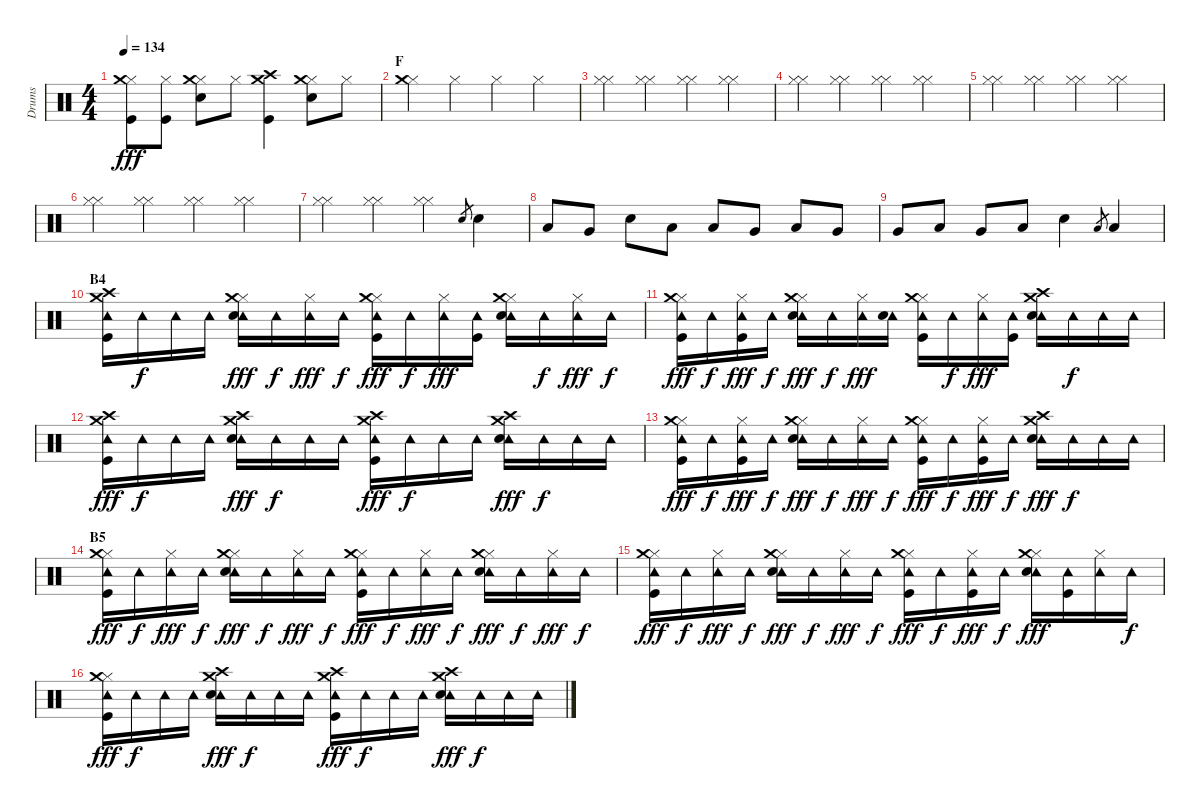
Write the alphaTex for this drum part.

\track ("Drums" "Drums") {instrument percussion}
\staff {score}
\articulation defaults
\ts (4 4)
\tempo 134
\clef neutral
\ks c
("Hi-Hat (closed)" "Crash medium (hit)" "Kick (hit)").8{dy fff} ("Hi-Hat (closed)" "Kick (hit)").8 ("Hi-Hat (closed)" "Crash medium (hit)" "Snare (hit) 2").8 "Hi-Hat (closed)".8 ("Crash high (hit)" "Crash medium (hit)" "Kick (hit)").4 ("Hi-Hat (closed)" "Crash medium (hit)" "Snare (hit) 2").8 "Hi-Hat (closed)".8 |
\section ("" "F")
("Hi-Hat (closed)" "Crash medium (hit)").4 "Hi-Hat (closed)".4 "Hi-Hat (closed)".4 "Hi-Hat (closed)".4 |
("Hi-Hat (closed)" "Hi-Hat (closed)").4 ("Hi-Hat (closed)" "Hi-Hat (closed)").4 ("Hi-Hat (closed)" "Hi-Hat (closed)").4 ("Hi-Hat (closed)" "Hi-Hat (closed)").4 |
("Hi-Hat (closed)" "Hi-Hat (closed)").4 ("Hi-Hat (closed)" "Hi-Hat (closed)").4 ("Hi-Hat (closed)" "Hi-Hat (closed)").4 ("Hi-Hat (closed)" "Hi-Hat (closed)").4 |
("Hi-Hat (closed)" "Hi-Hat (closed)").4 ("Hi-Hat (closed)" "Hi-Hat (closed)").4 ("Hi-Hat (closed)" "Hi-Hat (closed)").4 ("Hi-Hat (closed)" "Hi-Hat (closed)").4 |
("Hi-Hat (closed)" "Hi-Hat (closed)").4 ("Hi-Hat (closed)" "Hi-Hat (closed)").4 ("Hi-Hat (closed)" "Hi-Hat (closed)").4 ("Hi-Hat (closed)" "Hi-Hat (closed)").4 |
("Hi-Hat (closed)" "Hi-Hat (closed)").4 ("Hi-Hat (closed)" "Hi-Hat (closed)").4 ("Hi-Hat (closed)" "Hi-Hat (closed)").4 "Snare (hit) 2".8{gr} "Snare (hit) 2".4 |
"Low Tom (hit)".8 "Very Low Tom (hit)".8 "Snare (hit) 2".8 "Low Tom (hit)".8 "Low Tom (hit)".8 "Very Low Tom (hit)".8 "Low Floor Tom (hit)".8 "Very Low Tom (hit)".8 |
"Very Low Tom (hit)".8 "Low Floor Tom (hit)".8 "Very Low Tom (hit)".8 "Low Tom (hit)".8 "Snare (hit) 2".4 "Low Tom (hit)".8{gr} "Low Floor Tom (hit)".4 |
\section ("" "B4")
("Crash high (hit)" "Tambourine (hit)" "Crash medium (hit)" "Kick (hit)").16 "Tambourine (hit)".16{dy f} "Tambourine (hit)".16 "Tambourine (hit)".16 ("Hi-Hat (closed)" "Tambourine (hit)" "Crash medium (hit)" "Snare (hit) 2").16{dy fff} "Tambourine (hit)".16{dy f} ("Hi-Hat (closed)" "Tambourine (hit)").16{dy fff} "Tambourine (hit)".16{dy f} ("Hi-Hat (closed)" "Tambourine (hit)" "Crash medium (hit)" "Kick (hit)").16{dy fff} "Tambourine (hit)".16{dy f} ("Hi-Hat (closed)" "Tambourine (hit)").16{dy fff} ("Tambourine (hit)" "Kick (hit)").16 ("Hi-Hat (closed)" "Tambourine (hit)" "Crash medium (hit)" "Snare (hit) 2").16 "Tambourine (hit)".16{dy f} ("Hi-Hat (closed)" "Tambourine (hit)").16{dy fff} "Tambourine (hit)".16{dy f} |
("Hi-Hat (closed)" "Tambourine (hit)" "Crash medium (hit)" "Kick (hit)").16{dy fff} "Tambourine (hit)".16{dy f} ("Hi-Hat (closed)" "Tambourine (hit)" "Kick (hit)").16{dy fff} "Tambourine (hit)".16{dy f} ("Hi-Hat (closed)" "Tambourine (hit)" "Crash medium (hit)" "Snare (hit) 2").16{dy fff} "Tambourine (hit)".16{dy f} ("Hi-Hat (closed)" "Tambourine (hit)").16{dy fff} ("Tambourine (hit)" "Snare (hit) 2").16 ("Hi-Hat (closed)" "Tambourine (hit)" "Crash medium (hit)" "Kick (hit)").16 "Tambourine (hit)".16{dy f} ("Hi-Hat (closed)" "Tambourine (hit)").16{dy fff} ("Tambourine (hit)" "Kick (hit)").16 ("Crash high (hit)" "Tambourine (hit)" "Crash medium (hit)" "Snare (hit) 2").16 "Tambourine (hit)".16{dy f} "Tambourine (hit)".16 "Tambourine (hit)".16 |
("Crash high (hit)" "Tambourine (hit)" "Crash medium (hit)" "Kick (hit)").16{dy fff} "Tambourine (hit)".16{dy f} "Tambourine (hit)".16 "Tambourine (hit)".16 ("Crash high (hit)" "Tambourine (hit)" "Crash medium (hit)" "Snare (hit) 2").16{dy fff} "Tambourine (hit)".16{dy f} "Tambourine (hit)".16 "Tambourine (hit)".16 ("Crash high (hit)" "Tambourine (hit)" "Crash medium (hit)" "Kick (hit)").16{dy fff} "Tambourine (hit)".16{dy f} "Tambourine (hit)".16 "Tambourine (hit)".16 ("Crash high (hit)" "Tambourine (hit)" "Crash medium (hit)" "Snare (hit) 2").16{dy fff} "Tambourine (hit)".16{dy f} "Tambourine (hit)".16 "Tambourine (hit)".16 |
("Hi-Hat (closed)" "Tambourine (hit)" "Crash medium (hit)" "Kick (hit)").16{dy fff} "Tambourine (hit)".16{dy f} ("Hi-Hat (closed)" "Tambourine (hit)" "Kick (hit)").16{dy fff} "Tambourine (hit)".16{dy f} ("Hi-Hat (closed)" "Tambourine (hit)" "Crash medium (hit)" "Snare (hit) 2").16{dy fff} "Tambourine (hit)".16{dy f} ("Hi-Hat (closed)" "Tambourine (hit)").16{dy fff} "Tambourine (hit)".16{dy f} ("Hi-Hat (closed)" "Tambourine (hit)" "Crash medium (hit)" "Kick (hit)").16{dy fff} "Tambourine (hit)".16{dy f} ("Hi-Hat (closed)" "Tambourine (hit)" "Kick (hit)").16{dy fff} "Tambourine (hit)".16{dy f} ("Crash high (hit)" "Tambourine (hit)" "Crash medium (hit)" "Snare (hit) 2").16{dy fff} "Tambourine (hit)".16{dy f} "Tambourine (hit)".16 "Tambourine (hit)".16 |
\section ("" "B5")
("Hi-Hat (closed)" "Tambourine (hit)" "Crash medium (hit)" "Kick (hit)").16{dy fff} "Tambourine (hit)".16{dy f} ("Hi-Hat (closed)" "Tambourine (hit)").16{dy fff} "Tambourine (hit)".16{dy f} ("Hi-Hat (closed)" "Tambourine (hit)" "Crash medium (hit)" "Snare (hit) 2").16{dy fff} "Tambourine (hit)".16{dy f} ("Hi-Hat (closed)" "Tambourine (hit)").16{dy fff} "Tambourine (hit)".16{dy f} ("Hi-Hat (closed)" "Tambourine (hit)" "Crash medium (hit)" "Kick (hit)").16{dy fff} "Tambourine (hit)".16{dy f} ("Hi-Hat (closed)" "Tambourine (hit)").16{dy fff} "Tambourine (hit)".16{dy f} ("Hi-Hat (closed)" "Tambourine (hit)" "Crash medium (hit)" "Snare (hit) 2").16{dy fff} "Tambourine (hit)".16{dy f} ("Hi-Hat (closed)" "Tambourine (hit)").16{dy fff} "Tambourine (hit)".16{dy f} |
("Hi-Hat (closed)" "Tambourine (hit)" "Crash medium (hit)" "Kick (hit)").16{dy fff} "Tambourine (hit)".16{dy f} ("Hi-Hat (closed)" "Tambourine (hit)").16{dy fff} "Tambourine (hit)".16{dy f} ("Hi-Hat (closed)" "Tambourine (hit)" "Crash medium (hit)" "Snare (hit) 2").16{dy fff} "Tambourine (hit)".16{dy f} ("Hi-Hat (closed)" "Tambourine (hit)").16{dy fff} "Tambourine (hit)".16{dy f} ("Hi-Hat (closed)" "Tambourine (hit)" "Crash medium (hit)" "Kick (hit)").16{dy fff} "Tambourine (hit)".16{dy f} ("Hi-Hat (closed)" "Tambourine (hit)" "Kick (hit)").16{dy fff} "Tambourine (hit)".16{dy f} ("Hi-Hat (closed)" "Tambourine (hit)" "Crash medium (hit)" "Snare (hit) 2").16{dy fff} ("Tambourine (hit)" "Kick (hit)").16 ("Hi-Hat (closed)" "Tambourine (hit)").16 "Tambourine (hit)".16{dy f} |
("Hi-Hat (closed)" "Tambourine (hit)" "Crash medium (hit)" "Kick (hit)").16{dy fff} "Tambourine (hit)".16{dy f} "Tambourine (hit)".16 "Tambourine (hit)".16 ("Crash high (hit)" "Tambourine (hit)" "Crash medium (hit)" "Snare (hit) 2").16{dy fff} "Tambourine (hit)".16{dy f} "Tambourine (hit)".16 "Tambourine (hit)".16 ("Crash high (hit)" "Tambourine (hit)" "Crash medium (hit)" "Kick (hit)").16{dy fff} "Tambourine (hit)".16{dy f} "Tambourine (hit)".16 "Tambourine (hit)".16 ("Crash high (hit)" "Tambourine (hit)" "Crash medium (hit)" "Snare (hit) 2").16{dy fff} "Tambourine (hit)".16{dy f} "Tambourine (hit)".16 "Tambourine (hit)".16
